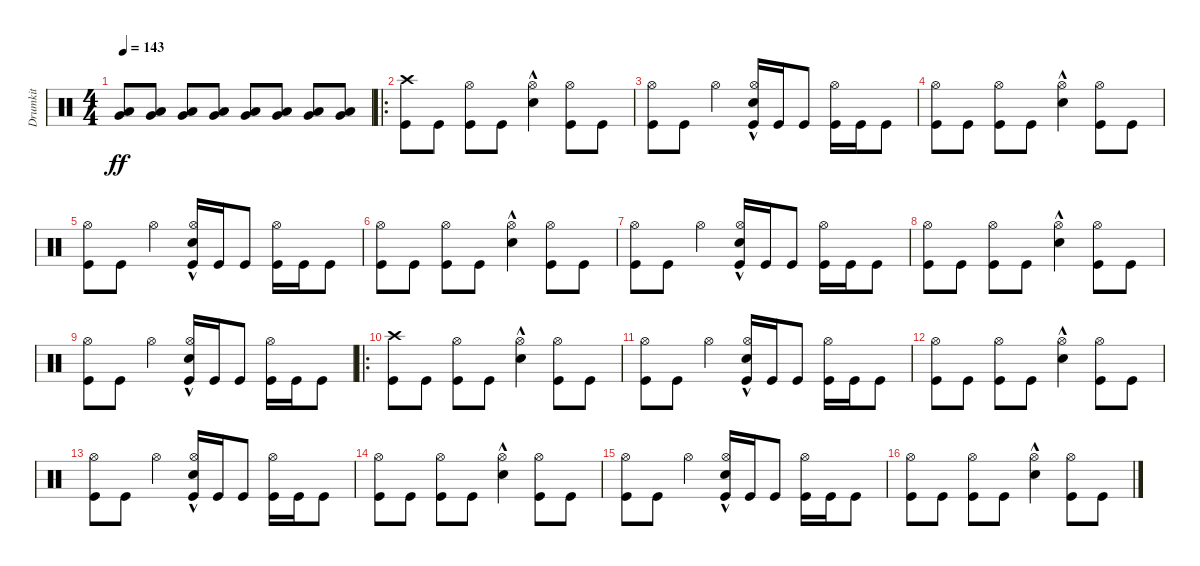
\track ("Drumkit" "Drumkit") {instrument percussion}
\staff {score}
\articulation defaults
\ts (4 4)
\tempo 143
\clef neutral
\ks c
("Very Low Tom (hit)" "Low Floor Tom (hit)").8{dy ff} ("Very Low Tom (hit)" "Low Floor Tom (hit)").8 ("Very Low Tom (hit)" "Low Floor Tom (hit)").8 ("Very Low Tom (hit)" "Low Floor Tom (hit)").8 ("Very Low Tom (hit)" "Low Floor Tom (hit)").8 ("Very Low Tom (hit)" "Low Floor Tom (hit)").8 ("Very Low Tom (hit)" "Low Floor Tom (hit)").8 ("Very Low Tom (hit)" "Low Floor Tom (hit)").8 |
\ro
("Kick (hit)" "Crash high (hit)").8 "Kick (hit)".8 ("Kick (hit)" "Hi-Hat (open)").8 "Kick (hit)".8 ("Snare (hit) 2"{hac} "Hi-Hat (open)").4 ("Kick (hit)" "Hi-Hat (open)").8 "Kick (hit)".8 |
("Kick (hit)" "Hi-Hat (open)").8 "Kick (hit)".8 "Hi-Hat (open)".4 ("Snare (hit) 2"{hac} "Hi-Hat (open)" "Kick (hit)").16 "Kick (hit)".16 "Kick (hit)".8 ("Hi-Hat (open)" "Kick (hit)").16 "Kick (hit)".16 "Kick (hit)".8 |
("Kick (hit)" "Hi-Hat (open)").8 "Kick (hit)".8 ("Kick (hit)" "Hi-Hat (open)").8 "Kick (hit)".8 ("Snare (hit) 2"{hac} "Hi-Hat (open)").4 ("Kick (hit)" "Hi-Hat (open)").8 "Kick (hit)".8 |
("Kick (hit)" "Hi-Hat (open)").8 "Kick (hit)".8 "Hi-Hat (open)".4 ("Snare (hit) 2"{hac} "Hi-Hat (open)" "Kick (hit)").16 "Kick (hit)".16 "Kick (hit)".8 ("Hi-Hat (open)" "Kick (hit)").16 "Kick (hit)".16 "Kick (hit)".8 |
("Kick (hit)" "Hi-Hat (open)").8 "Kick (hit)".8 ("Kick (hit)" "Hi-Hat (open)").8 "Kick (hit)".8 ("Snare (hit) 2"{hac} "Hi-Hat (open)").4 ("Kick (hit)" "Hi-Hat (open)").8 "Kick (hit)".8 |
("Kick (hit)" "Hi-Hat (open)").8 "Kick (hit)".8 "Hi-Hat (open)".4 ("Snare (hit) 2"{hac} "Hi-Hat (open)" "Kick (hit)").16 "Kick (hit)".16 "Kick (hit)".8 ("Hi-Hat (open)" "Kick (hit)").16 "Kick (hit)".16 "Kick (hit)".8 |
("Kick (hit)" "Hi-Hat (open)").8 "Kick (hit)".8 ("Kick (hit)" "Hi-Hat (open)").8 "Kick (hit)".8 ("Snare (hit) 2"{hac} "Hi-Hat (open)").4 ("Kick (hit)" "Hi-Hat (open)").8 "Kick (hit)".8 |
("Kick (hit)" "Hi-Hat (open)").8 "Kick (hit)".8 "Hi-Hat (open)".4 ("Snare (hit) 2"{hac} "Hi-Hat (open)" "Kick (hit)").16 "Kick (hit)".16 "Kick (hit)".8 ("Hi-Hat (open)" "Kick (hit)").16 "Kick (hit)".16 "Kick (hit)".8 |
\ro
("Kick (hit)" "Crash high (hit)").8 "Kick (hit)".8 ("Kick (hit)" "Hi-Hat (open)").8 "Kick (hit)".8 ("Snare (hit) 2"{hac} "Hi-Hat (open)").4 ("Kick (hit)" "Hi-Hat (open)").8 "Kick (hit)".8 |
("Kick (hit)" "Hi-Hat (open)").8 "Kick (hit)".8 "Hi-Hat (open)".4 ("Snare (hit) 2"{hac} "Hi-Hat (open)" "Kick (hit)").16 "Kick (hit)".16 "Kick (hit)".8 ("Hi-Hat (open)" "Kick (hit)").16 "Kick (hit)".16 "Kick (hit)".8 |
("Kick (hit)" "Hi-Hat (open)").8 "Kick (hit)".8 ("Kick (hit)" "Hi-Hat (open)").8 "Kick (hit)".8 ("Snare (hit) 2"{hac} "Hi-Hat (open)").4 ("Kick (hit)" "Hi-Hat (open)").8 "Kick (hit)".8 |
("Kick (hit)" "Hi-Hat (open)").8 "Kick (hit)".8 "Hi-Hat (open)".4 ("Snare (hit) 2"{hac} "Hi-Hat (open)" "Kick (hit)").16 "Kick (hit)".16 "Kick (hit)".8 ("Hi-Hat (open)" "Kick (hit)").16 "Kick (hit)".16 "Kick (hit)".8 |
("Kick (hit)" "Hi-Hat (open)").8 "Kick (hit)".8 ("Kick (hit)" "Hi-Hat (open)").8 "Kick (hit)".8 ("Snare (hit) 2"{hac} "Hi-Hat (open)").4 ("Kick (hit)" "Hi-Hat (open)").8 "Kick (hit)".8 |
("Kick (hit)" "Hi-Hat (open)").8 "Kick (hit)".8 "Hi-Hat (open)".4 ("Snare (hit) 2"{hac} "Hi-Hat (open)" "Kick (hit)").16 "Kick (hit)".16 "Kick (hit)".8 ("Hi-Hat (open)" "Kick (hit)").16 "Kick (hit)".16 "Kick (hit)".8 |
("Kick (hit)" "Hi-Hat (open)").8 "Kick (hit)".8 ("Kick (hit)" "Hi-Hat (open)").8 "Kick (hit)".8 ("Snare (hit) 2"{hac} "Hi-Hat (open)").4 ("Kick (hit)" "Hi-Hat (open)").8 "Kick (hit)".8
